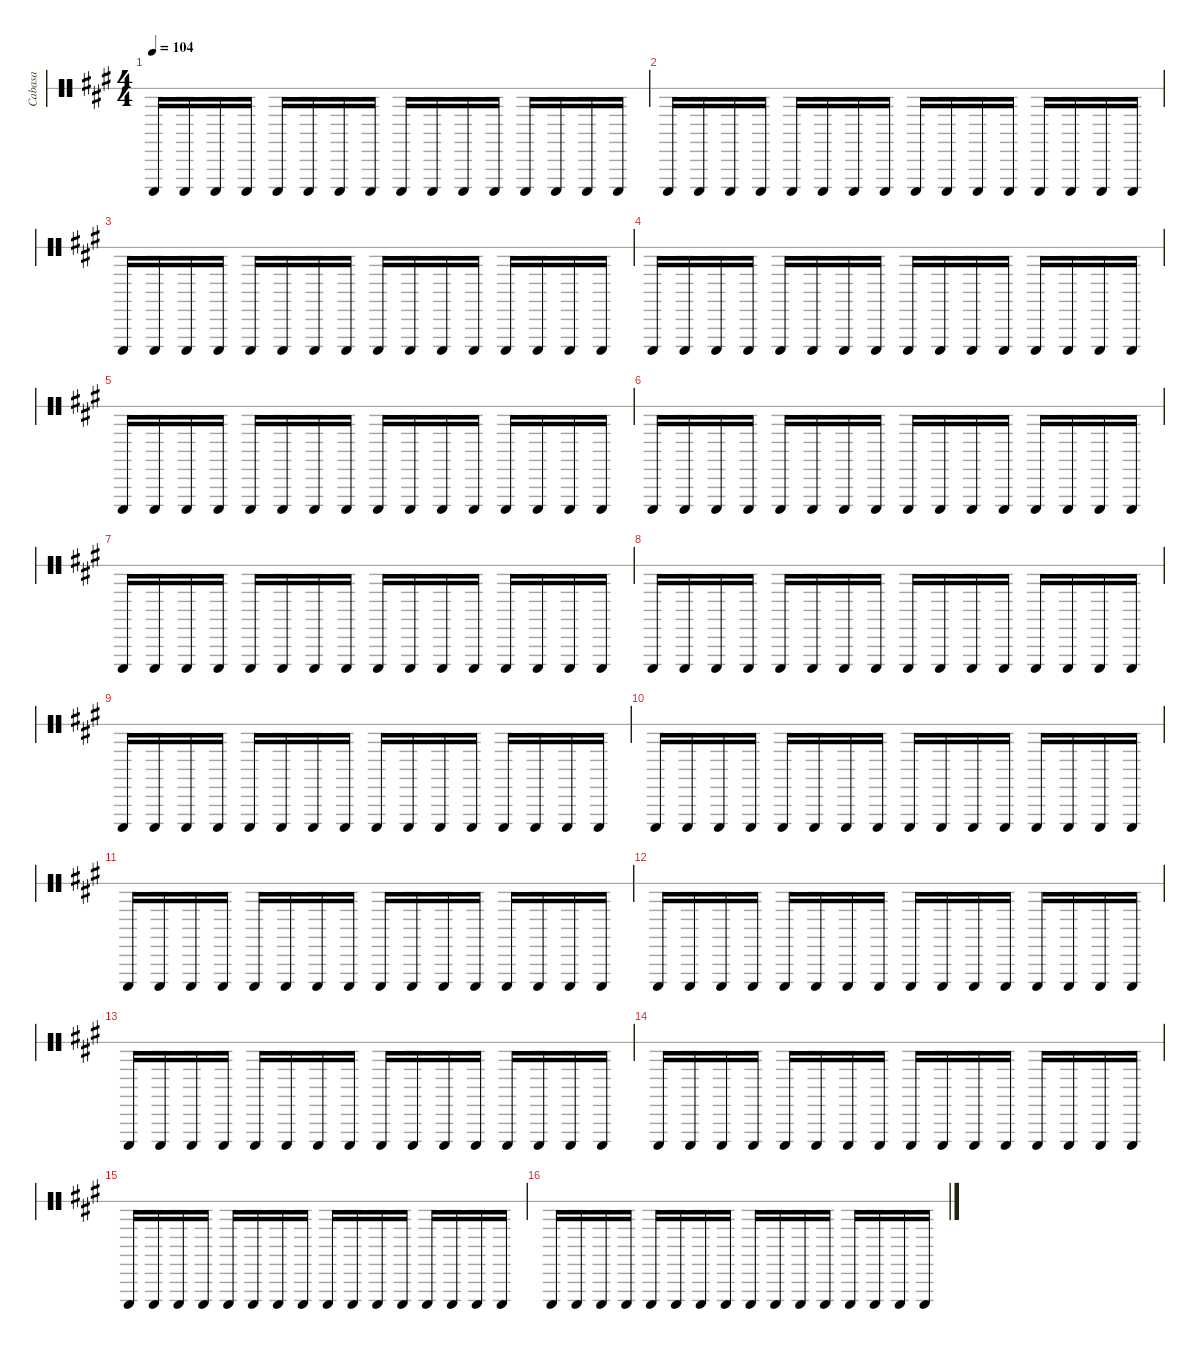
\hideDynamics
\bracketExtendMode nobrackets
\otherSystemsTrackNameOrientation horizontal
\track ("Cabasa" "Cabasa") {instrument percussion}
\staff {score 1}
\articulation defaults
\ts (4 4)
\tempo 104
\clef neutral
\ks a "Cabasa (hit)"{acc forcenatural}.16{dy f beam Up} "Cabasa (hit)"{acc forcenatural}.16{beam Up} "Cabasa (hit)"{acc forcenatural}.16{beam Up} "Cabasa (hit)"{acc forcenatural}.16{beam Up} "Cabasa (hit)"{acc forcenatural}.16{beam Up} "Cabasa (hit)"{acc forcenatural}.16{beam Up} "Cabasa (hit)"{acc forcenatural}.16{beam Up} "Cabasa (hit)"{acc forcenatural}.16{beam Up} "Cabasa (hit)"{acc forcenatural}.16{beam Up} "Cabasa (hit)"{acc forcenatural}.16{beam Up} "Cabasa (hit)"{acc forcenatural}.16{beam Up} "Cabasa (hit)"{acc forcenatural}.16{beam Up} "Cabasa (hit)"{acc forcenatural}.16{beam Up} "Cabasa (hit)"{acc forcenatural}.16{beam Up} "Cabasa (hit)"{acc forcenatural}.16{beam Up} "Cabasa (hit)"{acc forcenatural}.16{beam Up}
|
"Cabasa (hit)"{acc forcenatural}.16{beam Up} "Cabasa (hit)"{acc forcenatural}.16{beam Up} "Cabasa (hit)"{acc forcenatural}.16{beam Up} "Cabasa (hit)"{acc forcenatural}.16{beam Up} "Cabasa (hit)"{acc forcenatural}.16{beam Up} "Cabasa (hit)"{acc forcenatural}.16{beam Up} "Cabasa (hit)"{acc forcenatural}.16{beam Up} "Cabasa (hit)"{acc forcenatural}.16{beam Up} "Cabasa (hit)"{acc forcenatural}.16{beam Up} "Cabasa (hit)"{acc forcenatural}.16{beam Up} "Cabasa (hit)"{acc forcenatural}.16{beam Up} "Cabasa (hit)"{acc forcenatural}.16{beam Up} "Cabasa (hit)"{acc forcenatural}.16{beam Up} "Cabasa (hit)"{acc forcenatural}.16{beam Up} "Cabasa (hit)"{acc forcenatural}.16{beam Up} "Cabasa (hit)"{acc forcenatural}.16{beam Up} |
"Cabasa (hit)"{acc forcenatural}.16{beam Up} "Cabasa (hit)"{acc forcenatural}.16{beam Up} "Cabasa (hit)"{acc forcenatural}.16{beam Up} "Cabasa (hit)"{acc forcenatural}.16{beam Up} "Cabasa (hit)"{acc forcenatural}.16{beam Up} "Cabasa (hit)"{acc forcenatural}.16{beam Up} "Cabasa (hit)"{acc forcenatural}.16{beam Up} "Cabasa (hit)"{acc forcenatural}.16{beam Up} "Cabasa (hit)"{acc forcenatural}.16{beam Up} "Cabasa (hit)"{acc forcenatural}.16{beam Up} "Cabasa (hit)"{acc forcenatural}.16{beam Up} "Cabasa (hit)"{acc forcenatural}.16{beam Up} "Cabasa (hit)"{acc forcenatural}.16{beam Up} "Cabasa (hit)"{acc forcenatural}.16{beam Up} "Cabasa (hit)"{acc forcenatural}.16{beam Up} "Cabasa (hit)"{acc forcenatural}.16{beam Up} |
"Cabasa (hit)"{acc forcenatural}.16{beam Up} "Cabasa (hit)"{acc forcenatural}.16{beam Up} "Cabasa (hit)"{acc forcenatural}.16{beam Up} "Cabasa (hit)"{acc forcenatural}.16{beam Up} "Cabasa (hit)"{acc forcenatural}.16{beam Up} "Cabasa (hit)"{acc forcenatural}.16{beam Up} "Cabasa (hit)"{acc forcenatural}.16{beam Up} "Cabasa (hit)"{acc forcenatural}.16{beam Up} "Cabasa (hit)"{acc forcenatural}.16{beam Up} "Cabasa (hit)"{acc forcenatural}.16{beam Up} "Cabasa (hit)"{acc forcenatural}.16{beam Up} "Cabasa (hit)"{acc forcenatural}.16{beam Up} "Cabasa (hit)"{acc forcenatural}.16{beam Up} "Cabasa (hit)"{acc forcenatural}.16{beam Up} "Cabasa (hit)"{acc forcenatural}.16{beam Up} "Cabasa (hit)"{acc forcenatural}.16{beam Up} |
"Cabasa (hit)"{acc forcenatural}.16{beam Up} "Cabasa (hit)"{acc forcenatural}.16{beam Up} "Cabasa (hit)"{acc forcenatural}.16{beam Up} "Cabasa (hit)"{acc forcenatural}.16{beam Up} "Cabasa (hit)"{acc forcenatural}.16{beam Up} "Cabasa (hit)"{acc forcenatural}.16{beam Up} "Cabasa (hit)"{acc forcenatural}.16{beam Up} "Cabasa (hit)"{acc forcenatural}.16{beam Up} "Cabasa (hit)"{acc forcenatural}.16{beam Up} "Cabasa (hit)"{acc forcenatural}.16{beam Up} "Cabasa (hit)"{acc forcenatural}.16{beam Up} "Cabasa (hit)"{acc forcenatural}.16{beam Up} "Cabasa (hit)"{acc forcenatural}.16{beam Up} "Cabasa (hit)"{acc forcenatural}.16{beam Up} "Cabasa (hit)"{acc forcenatural}.16{beam Up} "Cabasa (hit)"{acc forcenatural}.16{beam Up} |
"Cabasa (hit)"{acc forcenatural}.16{beam Up} "Cabasa (hit)"{acc forcenatural}.16{beam Up} "Cabasa (hit)"{acc forcenatural}.16{beam Up} "Cabasa (hit)"{acc forcenatural}.16{beam Up} "Cabasa (hit)"{acc forcenatural}.16{beam Up} "Cabasa (hit)"{acc forcenatural}.16{beam Up} "Cabasa (hit)"{acc forcenatural}.16{beam Up} "Cabasa (hit)"{acc forcenatural}.16{beam Up} "Cabasa (hit)"{acc forcenatural}.16{beam Up} "Cabasa (hit)"{acc forcenatural}.16{beam Up} "Cabasa (hit)"{acc forcenatural}.16{beam Up} "Cabasa (hit)"{acc forcenatural}.16{beam Up} "Cabasa (hit)"{acc forcenatural}.16{beam Up} "Cabasa (hit)"{acc forcenatural}.16{beam Up} "Cabasa (hit)"{acc forcenatural}.16{beam Up} "Cabasa (hit)"{acc forcenatural}.16{beam Up} |
"Cabasa (hit)"{acc forcenatural}.16{beam Up} "Cabasa (hit)"{acc forcenatural}.16{beam Up} "Cabasa (hit)"{acc forcenatural}.16{beam Up} "Cabasa (hit)"{acc forcenatural}.16{beam Up} "Cabasa (hit)"{acc forcenatural}.16{beam Up} "Cabasa (hit)"{acc forcenatural}.16{beam Up} "Cabasa (hit)"{acc forcenatural}.16{beam Up} "Cabasa (hit)"{acc forcenatural}.16{beam Up} "Cabasa (hit)"{acc forcenatural}.16{beam Up} "Cabasa (hit)"{acc forcenatural}.16{beam Up} "Cabasa (hit)"{acc forcenatural}.16{beam Up} "Cabasa (hit)"{acc forcenatural}.16{beam Up} "Cabasa (hit)"{acc forcenatural}.16{beam Up} "Cabasa (hit)"{acc forcenatural}.16{beam Up} "Cabasa (hit)"{acc forcenatural}.16{beam Up} "Cabasa (hit)"{acc forcenatural}.16{beam Up} |
"Cabasa (hit)"{acc forcenatural}.16{beam Up} "Cabasa (hit)"{acc forcenatural}.16{beam Up} "Cabasa (hit)"{acc forcenatural}.16{beam Up} "Cabasa (hit)"{acc forcenatural}.16{beam Up} "Cabasa (hit)"{acc forcenatural}.16{beam Up} "Cabasa (hit)"{acc forcenatural}.16{beam Up} "Cabasa (hit)"{acc forcenatural}.16{beam Up} "Cabasa (hit)"{acc forcenatural}.16{beam Up} "Cabasa (hit)"{acc forcenatural}.16{beam Up} "Cabasa (hit)"{acc forcenatural}.16{beam Up} "Cabasa (hit)"{acc forcenatural}.16{beam Up} "Cabasa (hit)"{acc forcenatural}.16{beam Up} "Cabasa (hit)"{acc forcenatural}.16{beam Up} "Cabasa (hit)"{acc forcenatural}.16{beam Up} "Cabasa (hit)"{acc forcenatural}.16{beam Up} "Cabasa (hit)"{acc forcenatural}.16{beam Up} |
"Cabasa (hit)"{acc forcenatural}.16{beam Up} "Cabasa (hit)"{acc forcenatural}.16{beam Up} "Cabasa (hit)"{acc forcenatural}.16{beam Up} "Cabasa (hit)"{acc forcenatural}.16{beam Up} "Cabasa (hit)"{acc forcenatural}.16{beam Up} "Cabasa (hit)"{acc forcenatural}.16{beam Up} "Cabasa (hit)"{acc forcenatural}.16{beam Up} "Cabasa (hit)"{acc forcenatural}.16{beam Up} "Cabasa (hit)"{acc forcenatural}.16{beam Up} "Cabasa (hit)"{acc forcenatural}.16{beam Up} "Cabasa (hit)"{acc forcenatural}.16{beam Up} "Cabasa (hit)"{acc forcenatural}.16{beam Up} "Cabasa (hit)"{acc forcenatural}.16{beam Up} "Cabasa (hit)"{acc forcenatural}.16{beam Up} "Cabasa (hit)"{acc forcenatural}.16{beam Up} "Cabasa (hit)"{acc forcenatural}.16{beam Up} |
"Cabasa (hit)"{acc forcenatural}.16{beam Up} "Cabasa (hit)"{acc forcenatural}.16{beam Up} "Cabasa (hit)"{acc forcenatural}.16{beam Up} "Cabasa (hit)"{acc forcenatural}.16{beam Up} "Cabasa (hit)"{acc forcenatural}.16{beam Up} "Cabasa (hit)"{acc forcenatural}.16{beam Up} "Cabasa (hit)"{acc forcenatural}.16{beam Up} "Cabasa (hit)"{acc forcenatural}.16{beam Up} "Cabasa (hit)"{acc forcenatural}.16{beam Up} "Cabasa (hit)"{acc forcenatural}.16{beam Up} "Cabasa (hit)"{acc forcenatural}.16{beam Up} "Cabasa (hit)"{acc forcenatural}.16{beam Up} "Cabasa (hit)"{acc forcenatural}.16{beam Up} "Cabasa (hit)"{acc forcenatural}.16{beam Up} "Cabasa (hit)"{acc forcenatural}.16{beam Up} "Cabasa (hit)"{acc forcenatural}.16{beam Up} |
"Cabasa (hit)"{acc forcenatural}.16{beam Up} "Cabasa (hit)"{acc forcenatural}.16{beam Up} "Cabasa (hit)"{acc forcenatural}.16{beam Up} "Cabasa (hit)"{acc forcenatural}.16{beam Up} "Cabasa (hit)"{acc forcenatural}.16{beam Up} "Cabasa (hit)"{acc forcenatural}.16{beam Up} "Cabasa (hit)"{acc forcenatural}.16{beam Up} "Cabasa (hit)"{acc forcenatural}.16{beam Up} "Cabasa (hit)"{acc forcenatural}.16{beam Up} "Cabasa (hit)"{acc forcenatural}.16{beam Up} "Cabasa (hit)"{acc forcenatural}.16{beam Up} "Cabasa (hit)"{acc forcenatural}.16{beam Up} "Cabasa (hit)"{acc forcenatural}.16{beam Up} "Cabasa (hit)"{acc forcenatural}.16{beam Up} "Cabasa (hit)"{acc forcenatural}.16{beam Up} "Cabasa (hit)"{acc forcenatural}.16{beam Up} |
"Cabasa (hit)"{acc forcenatural}.16{beam Up} "Cabasa (hit)"{acc forcenatural}.16{beam Up} "Cabasa (hit)"{acc forcenatural}.16{beam Up} "Cabasa (hit)"{acc forcenatural}.16{beam Up} "Cabasa (hit)"{acc forcenatural}.16{beam Up} "Cabasa (hit)"{acc forcenatural}.16{beam Up} "Cabasa (hit)"{acc forcenatural}.16{beam Up} "Cabasa (hit)"{acc forcenatural}.16{beam Up} "Cabasa (hit)"{acc forcenatural}.16{beam Up} "Cabasa (hit)"{acc forcenatural}.16{beam Up} "Cabasa (hit)"{acc forcenatural}.16{beam Up} "Cabasa (hit)"{acc forcenatural}.16{beam Up} "Cabasa (hit)"{acc forcenatural}.16{beam Up} "Cabasa (hit)"{acc forcenatural}.16{beam Up} "Cabasa (hit)"{acc forcenatural}.16{beam Up} "Cabasa (hit)"{acc forcenatural}.16{beam Up} |
"Cabasa (hit)"{acc forcenatural}.16{beam Up} "Cabasa (hit)"{acc forcenatural}.16{beam Up} "Cabasa (hit)"{acc forcenatural}.16{beam Up} "Cabasa (hit)"{acc forcenatural}.16{beam Up} "Cabasa (hit)"{acc forcenatural}.16{beam Up} "Cabasa (hit)"{acc forcenatural}.16{beam Up} "Cabasa (hit)"{acc forcenatural}.16{beam Up} "Cabasa (hit)"{acc forcenatural}.16{beam Up} "Cabasa (hit)"{acc forcenatural}.16{beam Up} "Cabasa (hit)"{acc forcenatural}.16{beam Up} "Cabasa (hit)"{acc forcenatural}.16{beam Up} "Cabasa (hit)"{acc forcenatural}.16{beam Up} "Cabasa (hit)"{acc forcenatural}.16{beam Up} "Cabasa (hit)"{acc forcenatural}.16{beam Up} "Cabasa (hit)"{acc forcenatural}.16{beam Up} "Cabasa (hit)"{acc forcenatural}.16{beam Up} |
"Cabasa (hit)"{acc forcenatural}.16{beam Up} "Cabasa (hit)"{acc forcenatural}.16{beam Up} "Cabasa (hit)"{acc forcenatural}.16{beam Up} "Cabasa (hit)"{acc forcenatural}.16{beam Up} "Cabasa (hit)"{acc forcenatural}.16{beam Up} "Cabasa (hit)"{acc forcenatural}.16{beam Up} "Cabasa (hit)"{acc forcenatural}.16{beam Up} "Cabasa (hit)"{acc forcenatural}.16{beam Up} "Cabasa (hit)"{acc forcenatural}.16{beam Up} "Cabasa (hit)"{acc forcenatural}.16{beam Up} "Cabasa (hit)"{acc forcenatural}.16{beam Up} "Cabasa (hit)"{acc forcenatural}.16{beam Up} "Cabasa (hit)"{acc forcenatural}.16{beam Up} "Cabasa (hit)"{acc forcenatural}.16{beam Up} "Cabasa (hit)"{acc forcenatural}.16{beam Up} "Cabasa (hit)"{acc forcenatural}.16{beam Up} |
"Cabasa (hit)"{acc forcenatural}.16{beam Up} "Cabasa (hit)"{acc forcenatural}.16{beam Up} "Cabasa (hit)"{acc forcenatural}.16{beam Up} "Cabasa (hit)"{acc forcenatural}.16{beam Up} "Cabasa (hit)"{acc forcenatural}.16{beam Up} "Cabasa (hit)"{acc forcenatural}.16{beam Up} "Cabasa (hit)"{acc forcenatural}.16{beam Up} "Cabasa (hit)"{acc forcenatural}.16{beam Up} "Cabasa (hit)"{acc forcenatural}.16{beam Up} "Cabasa (hit)"{acc forcenatural}.16{beam Up} "Cabasa (hit)"{acc forcenatural}.16{beam Up} "Cabasa (hit)"{acc forcenatural}.16{beam Up} "Cabasa (hit)"{acc forcenatural}.16{beam Up} "Cabasa (hit)"{acc forcenatural}.16{beam Up} "Cabasa (hit)"{acc forcenatural}.16{beam Up} "Cabasa (hit)"{acc forcenatural}.16{beam Up} |
"Cabasa (hit)"{acc forcenatural}.16{beam Up} "Cabasa (hit)"{acc forcenatural}.16{beam Up} "Cabasa (hit)"{acc forcenatural}.16{beam Up} "Cabasa (hit)"{acc forcenatural}.16{beam Up} "Cabasa (hit)"{acc forcenatural}.16{beam Up} "Cabasa (hit)"{acc forcenatural}.16{beam Up} "Cabasa (hit)"{acc forcenatural}.16{beam Up} "Cabasa (hit)"{acc forcenatural}.16{beam Up} "Cabasa (hit)"{acc forcenatural}.16{beam Up} "Cabasa (hit)"{acc forcenatural}.16{beam Up} "Cabasa (hit)"{acc forcenatural}.16{beam Up} "Cabasa (hit)"{acc forcenatural}.16{beam Up} "Cabasa (hit)"{acc forcenatural}.16{beam Up} "Cabasa (hit)"{acc forcenatural}.16{beam Up} "Cabasa (hit)"{acc forcenatural}.16{beam Up} "Cabasa (hit)"{acc forcenatural}.16{beam Up}
